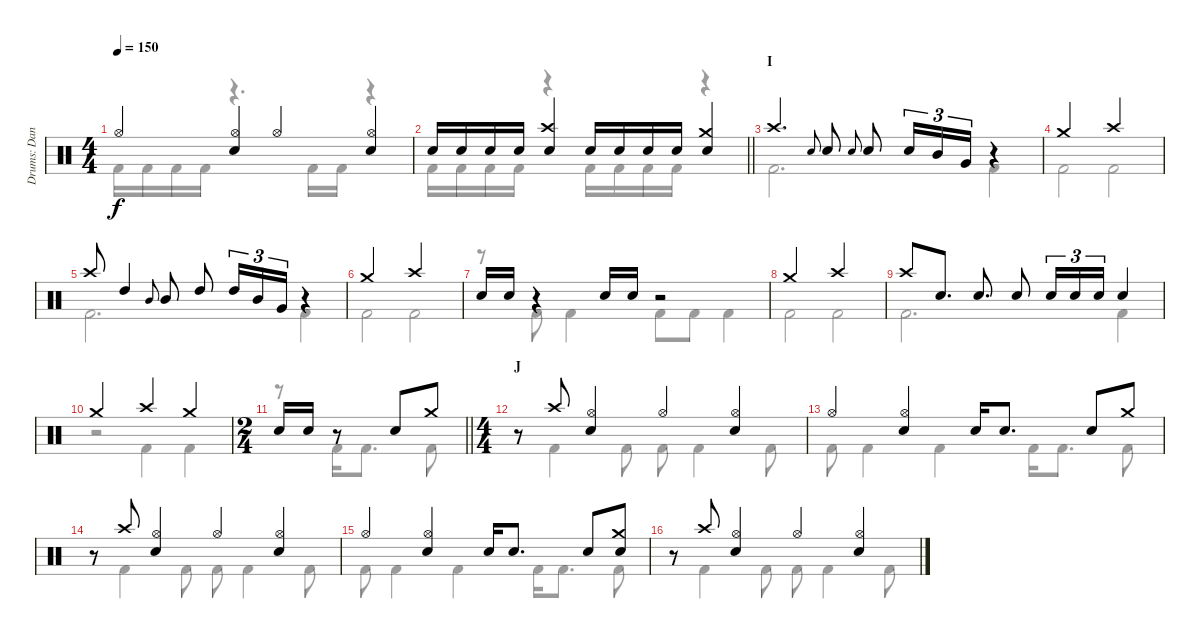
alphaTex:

\track ("Drums: Dana" "Drums: Dan") {instrument percussion}
\staff {score}
\articulation defaults
\voice
\ts (4 4)
\tempo 150
\clef neutral
\ks c "Hi-Hat (open)".4{dy f}
("Hi-Hat (open)" "Snare (hit) 2").4 "Hi-Hat (open)".4 ("Hi-Hat (open)" "Snare (hit) 2").4 |
\barLineRight lightlight "Snare (hit) 2".16 "Snare (hit) 2".16 "Snare (hit) 2".16 "Snare (hit) 2".16
("Crash high (hit)" "Snare (hit) 2").4 "Snare (hit) 2".16 "Snare (hit) 2".16 "Snare (hit) 2".16 "Snare (hit) 2".16 ("Crash medium (hit)" "Snare (hit) 2").4 |
\section ("" "I")
"Crash high (hit)".4{d} "Electric Snare (hit)".8{gr onbeat} "Snare (hit) 2".8 "Electric Snare (hit)".8{gr onbeat} "Snare (hit) 2".8 "Snare (hit) 2".16{tu (3 2)} "Mid Tom (hit)".16{tu (3 2)} "Very Low Tom (hit)".16{tu (3 2)} r.4 |
"Crash medium (hit)".2 "Crash high (hit)".2 |
"Crash high (hit)".8 "High Tom (hit)".4 "Mid Tom (hit)".8{gr onbeat} "Mid Tom (hit)".8 "High Tom (hit)".8 "High Tom (hit)".16{tu (3 2)} "Mid Tom (hit)".16{tu (3 2)} "Very Low Tom (hit)".16{tu (3 2)} r.4 |
"Crash medium (hit)".2 "Crash high (hit)".2 |
"Snare (hit) 2".16 "Snare (hit) 2".16 r.4 "Snare (hit) 2".16 "Snare (hit) 2".16 r.2 |
"Crash medium (hit)".2 "Crash high (hit)".2 |
"Crash high (hit)".8 "Snare (hit) 2".8{d} "Snare (hit) 2".8{d} "Snare (hit) 2".8 "Snare (hit) 2".16{tu (3 2)} "Snare (hit) 2".16{tu (3 2)} "Snare (hit) 2".16{tu (3 2)} "Snare (hit) 2".4 |
"Crash medium (hit)".2 "Crash high (hit)".4 "Crash medium (hit)".4 |
\ts (2 4)
\barLineRight lightlight "Snare (hit) 2".16 "Snare (hit) 2".16
r.8 "Snare (hit) 2".8 "Crash medium (hit)".8 |
\ts (4 4)
\section ("" "J")
r.8 "Crash high (hit)".8 ("Hi-Hat (open)" "Snare (hit) 2").4 "Hi-Hat (open)".4 ("Hi-Hat (open)" "Snare (hit) 2").4 |
"Hi-Hat (open)".4 ("Hi-Hat (open)" "Snare (hit) 2").4 "Snare (hit) 2".16 "Snare (hit) 2".8{d} "Snare (hit) 2".8 "Crash medium (hit)".8 |
r.8 "Crash high (hit)".8 ("Hi-Hat (open)" "Snare (hit) 2").4 "Hi-Hat (open)".4 ("Hi-Hat (open)" "Snare (hit) 2").4 |
"Hi-Hat (open)".4 ("Hi-Hat (open)" "Snare (hit) 2").4 "Snare (hit) 2".16 "Snare (hit) 2".8{d} "Snare (hit) 2".8 ("Crash medium (hit)" "Snare (hit) 2").8 |
r.8 "Crash high (hit)".8 ("Hi-Hat (open)" "Snare (hit) 2").4 "Hi-Hat (open)".4 ("Hi-Hat (open)" "Snare (hit) 2").4
\voice
\clef neutral
\ottava regular
\simile none
\ks c "Kick (hit) 2".16{dy f} "Kick (hit) 2".16 "Kick (hit) 2".16 "Kick (hit) 2".16
r.4{d} "Kick (hit) 2".16 "Kick (hit) 2".16 r.4 |
\barLineRight lightlight "Kick (hit) 2".16 "Kick (hit) 2".16 "Kick (hit) 2".16 "Kick (hit) 2".16
r.4 "Kick (hit) 2".16 "Kick (hit) 2".16 "Kick (hit) 2".16 "Kick (hit) 2".16 r.4 |
"Kick (hit) 2".2{d} "Kick (hit) 2".4 |
"Kick (hit) 2".2 "Kick (hit) 2".2 |
"Kick (hit) 2".2{d} "Kick (hit) 2".4 |
"Kick (hit) 2".2 "Kick (hit) 2".2 |
r.8 "Kick (hit) 2".8 "Kick (hit) 2".4 "Kick (hit) 2".8 "Kick (hit) 2".8 "Kick (hit) 2".4 |
"Kick (hit) 2".2 "Kick (hit) 2".2 |
"Kick (hit) 2".2{d} "Kick (hit) 2".4 |
r.2 "Kick (hit) 2".4 "Kick (hit) 2".4 |
\barLineRight lightlight
r.8 "Kick (hit) 2".16 "Kick (hit) 2".8{d} "Kick (hit) 2".8 |
r.8 "Kick (hit) 2".4 "Kick (hit) 2".8 "Kick (hit) 2".8 "Kick (hit) 2".4 "Kick (hit) 2".8 |
"Kick (hit) 2".8 "Kick (hit) 2".4 "Kick (hit) 2".4 "Kick (hit) 2".16 "Kick (hit) 2".8{d} "Kick (hit) 2".8 |
r.8 "Kick (hit) 2".4 "Kick (hit) 2".8 "Kick (hit) 2".8 "Kick (hit) 2".4 "Kick (hit) 2".8 |
"Kick (hit) 2".8 "Kick (hit) 2".4 "Kick (hit) 2".4 "Kick (hit) 2".16 "Kick (hit) 2".8{d} "Kick (hit) 2".8 |
r.8 "Kick (hit) 2".4 "Kick (hit) 2".8 "Kick (hit) 2".8 "Kick (hit) 2".4 "Kick (hit) 2".8
